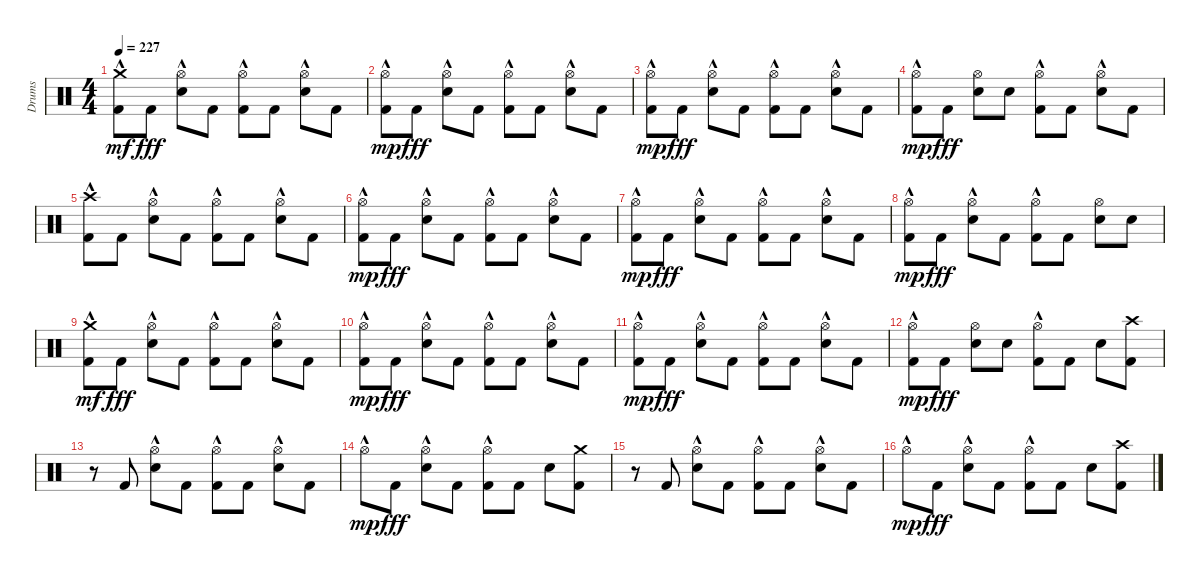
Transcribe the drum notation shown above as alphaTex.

\track ("Drums" "Drums") {instrument percussion}
\staff {score}
\articulation defaults
\ts (4 4)
\tempo 227
\clef neutral
\ks c
("Kick (hit) 2" "Crash medium (hit)"{hac}).8{dy mf} "Kick (hit) 2".8{dy fff} ("Hi-Hat (open)"{hac} "Snare (hit) 2"{hac}).8 "Kick (hit) 2".8 ("Hi-Hat (open)"{hac} "Kick (hit) 2").8 "Kick (hit) 2".8 ("Hi-Hat (open)"{hac} "Snare (hit) 2"{hac}).8 "Kick (hit) 2".8 |
("Kick (hit) 2" "Hi-Hat (open)"{hac}).8{dy mp} "Kick (hit) 2".8{dy fff} ("Hi-Hat (open)"{hac} "Snare (hit) 2"{hac}).8 "Kick (hit) 2".8 ("Hi-Hat (open)"{hac} "Kick (hit) 2").8 "Kick (hit) 2".8 ("Hi-Hat (open)"{hac} "Snare (hit) 2"{hac}).8 "Kick (hit) 2".8 |
("Kick (hit) 2" "Hi-Hat (open)"{hac}).8{dy mp} "Kick (hit) 2".8{dy fff} ("Hi-Hat (open)"{hac} "Snare (hit) 2"{hac}).8 "Kick (hit) 2".8 ("Hi-Hat (open)"{hac} "Kick (hit) 2").8 "Kick (hit) 2".8 ("Hi-Hat (open)"{hac} "Snare (hit) 2"{hac}).8 "Kick (hit) 2".8 |
("Kick (hit) 2" "Hi-Hat (open)"{hac}).8{dy mp} "Kick (hit) 2".8{dy fff} ("Hi-Hat (open)" "Snare (hit) 2").8 "Snare (hit) 2".8 ("Hi-Hat (open)"{hac} "Kick (hit) 2").8 "Kick (hit) 2".8 ("Hi-Hat (open)"{hac} "Snare (hit) 2"{hac}).8 "Kick (hit) 2".8 |
("Kick (hit) 2" "Crash high (hit)"{hac}).8 "Kick (hit) 2".8 ("Hi-Hat (open)"{hac} "Snare (hit) 2"{hac}).8 "Kick (hit) 2".8 ("Hi-Hat (open)"{hac} "Kick (hit) 2").8 "Kick (hit) 2".8 ("Hi-Hat (open)"{hac} "Snare (hit) 2"{hac}).8 "Kick (hit) 2".8 |
("Kick (hit) 2" "Hi-Hat (open)"{hac}).8{dy mp} "Kick (hit) 2".8{dy fff} ("Hi-Hat (open)"{hac} "Snare (hit) 2"{hac}).8 "Kick (hit) 2".8 ("Hi-Hat (open)"{hac} "Kick (hit) 2").8 "Kick (hit) 2".8 ("Hi-Hat (open)"{hac} "Snare (hit) 2"{hac}).8 "Kick (hit) 2".8 |
("Kick (hit) 2" "Hi-Hat (open)"{hac}).8{dy mp} "Kick (hit) 2".8{dy fff} ("Hi-Hat (open)"{hac} "Snare (hit) 2"{hac}).8 "Kick (hit) 2".8 ("Hi-Hat (open)"{hac} "Kick (hit) 2").8 "Kick (hit) 2".8 ("Hi-Hat (open)"{hac} "Snare (hit) 2"{hac}).8 "Kick (hit) 2".8 |
("Kick (hit) 2" "Hi-Hat (open)"{hac}).8{dy mp} "Kick (hit) 2".8{dy fff} ("Hi-Hat (open)"{hac} "Snare (hit) 2"{hac}).8 "Kick (hit) 2".8 ("Hi-Hat (open)"{hac} "Kick (hit) 2").8 "Kick (hit) 2".8 ("Hi-Hat (open)" "Snare (hit) 2").8 "Snare (hit) 2".8 |
("Kick (hit) 2" "Crash medium (hit)"{hac}).8{dy mf} "Kick (hit) 2".8{dy fff} ("Hi-Hat (open)"{hac} "Snare (hit) 2"{hac}).8 "Kick (hit) 2".8 ("Hi-Hat (open)"{hac} "Kick (hit) 2").8 "Kick (hit) 2".8 ("Hi-Hat (open)"{hac} "Snare (hit) 2"{hac}).8 "Kick (hit) 2".8 |
("Kick (hit) 2" "Hi-Hat (open)"{hac}).8{dy mp} "Kick (hit) 2".8{dy fff} ("Hi-Hat (open)"{hac} "Snare (hit) 2"{hac}).8 "Kick (hit) 2".8 ("Hi-Hat (open)"{hac} "Kick (hit) 2").8 "Kick (hit) 2".8 ("Hi-Hat (open)"{hac} "Snare (hit) 2"{hac}).8 "Kick (hit) 2".8 |
("Kick (hit) 2" "Hi-Hat (open)"{hac}).8{dy mp} "Kick (hit) 2".8{dy fff} ("Hi-Hat (open)"{hac} "Snare (hit) 2"{hac}).8 "Kick (hit) 2".8 ("Hi-Hat (open)"{hac} "Kick (hit) 2").8 "Kick (hit) 2".8 ("Hi-Hat (open)"{hac} "Snare (hit) 2"{hac}).8 "Kick (hit) 2".8 |
("Kick (hit) 2" "Hi-Hat (open)"{hac}).8{dy mp} "Kick (hit) 2".8{dy fff} ("Hi-Hat (open)" "Snare (hit) 2").8 "Snare (hit) 2".8 ("Hi-Hat (open)"{hac} "Kick (hit) 2").8 "Kick (hit) 2".8 "Snare (hit) 2".8 ("Kick (hit) 2" "Crash high (hit)").8 |
r.8 "Kick (hit) 2".8 ("Hi-Hat (open)"{hac} "Snare (hit) 2"{hac}).8 "Kick (hit) 2".8 ("Hi-Hat (open)"{hac} "Kick (hit) 2").8 "Kick (hit) 2".8 ("Hi-Hat (open)"{hac} "Snare (hit) 2"{hac}).8 "Kick (hit) 2".8 |
"Hi-Hat (open)"{hac}.8{dy mp} "Kick (hit) 2".8{dy fff} ("Hi-Hat (open)"{hac} "Snare (hit) 2"{hac}).8 "Kick (hit) 2".8 ("Hi-Hat (open)"{hac} "Kick (hit) 2").8 "Kick (hit) 2".8 "Snare (hit) 2".8 ("Kick (hit) 2" "Crash medium (hit)").8 |
r.8 "Kick (hit) 2".8 ("Hi-Hat (open)"{hac} "Snare (hit) 2"{hac}).8 "Kick (hit) 2".8 ("Hi-Hat (open)"{hac} "Kick (hit) 2").8 "Kick (hit) 2".8 ("Hi-Hat (open)"{hac} "Snare (hit) 2"{hac}).8 "Kick (hit) 2".8 |
"Hi-Hat (open)"{hac}.8{dy mp} "Kick (hit) 2".8{dy fff} ("Hi-Hat (open)"{hac} "Snare (hit) 2"{hac}).8 "Kick (hit) 2".8 ("Hi-Hat (open)"{hac} "Kick (hit) 2").8 "Kick (hit) 2".8 "Snare (hit) 2".8 ("Kick (hit) 2" "Crash high (hit)").8
